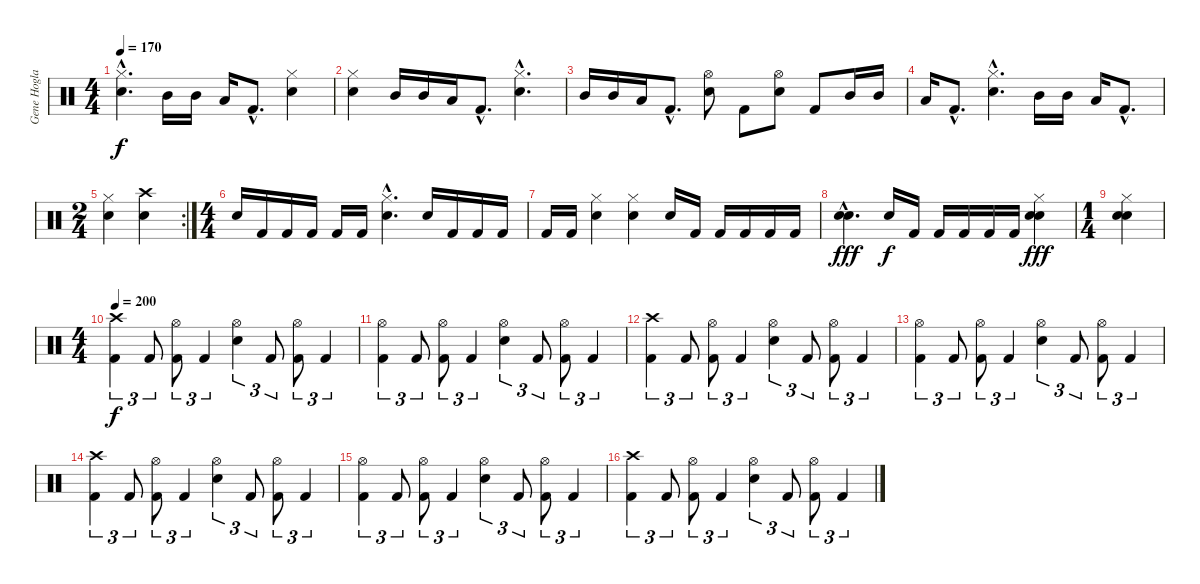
\track ("Gene Hoglan" "Gene Hogla") {instrument percussion}
\staff {score}
\articulation defaults
\ts (4 4)
\tempo 170
\clef neutral
\ks c
("Hi-Hat (closed)"{hac} "Snare (hit) 2"{hac}).4{d dy f} "Mid Tom (hit)".16 "Mid Tom (hit)".16 "Low Tom (hit)".16 "Kick (hit) 2"{hac}.8{d} ("Hi-Hat (closed)" "Snare (hit) 2").4 |
("Hi-Hat (closed)" "Snare (hit) 2").4 "Mid Tom (hit)".16 "Mid Tom (hit)".16 "Low Tom (hit)".16 "Kick (hit) 2"{hac}.8{d} ("Hi-Hat (closed)"{hac} "Snare (hit) 2"{hac}).4{d} |
"Mid Tom (hit)".16 "Mid Tom (hit)".16 "Low Tom (hit)".16 "Kick (hit) 2"{hac}.8{d} ("Hi-Hat (open)" "Snare (hit) 2").8 "Kick (hit) 2".8 ("Hi-Hat (open)" "Snare (hit) 2").8 "Kick (hit) 2".8 "Mid Tom (hit)".16 "Mid Tom (hit)".16 |
"Low Tom (hit)".16 "Kick (hit) 2"{hac}.8{d} ("Hi-Hat (closed)"{hac} "Snare (hit) 2"{hac}).4{d} "Mid Tom (hit)".16 "Mid Tom (hit)".16 "Low Tom (hit)".16 "Kick (hit) 2"{hac}.8{d} |
\rc 2
\ts (2 4)
("Hi-Hat (closed)" "Snare (hit) 2").4 ("Crash high (hit)" "Snare (hit) 2").4 |
\ts (4 4)
"Snare (hit) 2".16 "Kick (hit) 2".16 "Kick (hit) 2".16 "Kick (hit) 2".16 "Kick (hit) 2".16 "Kick (hit) 2".16 ("Hi-Hat (closed)"{hac} "Snare (hit) 2"{hac}).4{d} "Snare (hit) 2".16 "Kick (hit) 2".16 "Kick (hit) 2".16 "Kick (hit) 2".16 |
"Kick (hit) 2".16 "Kick (hit) 2".16 ("Hi-Hat (closed)" "Snare (hit) 2").4 ("Hi-Hat (closed)" "Snare (hit) 2").4 "Snare (hit) 2".16 "Kick (hit) 2".16 "Kick (hit) 2".16 "Kick (hit) 2".16 "Kick (hit) 2".16 "Kick (hit) 2".16 |
("Snare (hit) 2"{hac} "Snare (hit) 2"{hac}).4{d dy fff} "Snare (hit) 2".16{dy f} "Kick (hit) 2".16 "Kick (hit) 2".16 "Kick (hit) 2".16 "Kick (hit) 2".16 "Kick (hit) 2".16 ("Hi-Hat (closed)" "Snare (hit) 2" "Snare (hit) 2").4{dy fff} |
\ts (1 4)
("Hi-Hat (closed)" "Snare (hit) 2" "Snare (hit) 2").4 |
\ts (4 4)
\tempo 200
("Crash high (hit)" "Kick (hit) 2").4{tu (3 2) dy f} "Kick (hit) 2".8{tu (3 2)} ("Hi-Hat (open)" "Kick (hit) 2").8{tu (3 2)} "Kick (hit) 2".4{tu (3 2)} ("Hi-Hat (open)" "Snare (hit) 2").4{tu (3 2)} "Kick (hit) 2".8{tu (3 2)} ("Hi-Hat (open)" "Kick (hit) 2").8{tu (3 2)} "Kick (hit) 2".4{tu (3 2)} |
("Hi-Hat (open)" "Kick (hit) 2").4{tu (3 2)} "Kick (hit) 2".8{tu (3 2)} ("Hi-Hat (open)" "Kick (hit) 2").8{tu (3 2)} "Kick (hit) 2".4{tu (3 2)} ("Hi-Hat (open)" "Snare (hit) 2").4{tu (3 2)} "Kick (hit) 2".8{tu (3 2)} ("Hi-Hat (open)" "Kick (hit) 2").8{tu (3 2)} "Kick (hit) 2".4{tu (3 2)} |
("Crash high (hit)" "Kick (hit) 2").4{tu (3 2)} "Kick (hit) 2".8{tu (3 2)} ("Hi-Hat (open)" "Kick (hit) 2").8{tu (3 2)} "Kick (hit) 2".4{tu (3 2)} ("Hi-Hat (open)" "Snare (hit) 2").4{tu (3 2)} "Kick (hit) 2".8{tu (3 2)} ("Hi-Hat (open)" "Kick (hit) 2").8{tu (3 2)} "Kick (hit) 2".4{tu (3 2)} |
("Hi-Hat (open)" "Kick (hit) 2").4{tu (3 2)} "Kick (hit) 2".8{tu (3 2)} ("Hi-Hat (open)" "Kick (hit) 2").8{tu (3 2)} "Kick (hit) 2".4{tu (3 2)} ("Hi-Hat (open)" "Snare (hit) 2").4{tu (3 2)} "Kick (hit) 2".8{tu (3 2)} ("Hi-Hat (open)" "Kick (hit) 2").8{tu (3 2)} "Kick (hit) 2".4{tu (3 2)} |
("Crash high (hit)" "Kick (hit) 2").4{tu (3 2)} "Kick (hit) 2".8{tu (3 2)} ("Hi-Hat (open)" "Kick (hit) 2").8{tu (3 2)} "Kick (hit) 2".4{tu (3 2)} ("Hi-Hat (open)" "Snare (hit) 2").4{tu (3 2)} "Kick (hit) 2".8{tu (3 2)} ("Hi-Hat (open)" "Kick (hit) 2").8{tu (3 2)} "Kick (hit) 2".4{tu (3 2)} |
("Hi-Hat (open)" "Kick (hit) 2").4{tu (3 2)} "Kick (hit) 2".8{tu (3 2)} ("Hi-Hat (open)" "Kick (hit) 2").8{tu (3 2)} "Kick (hit) 2".4{tu (3 2)} ("Hi-Hat (open)" "Snare (hit) 2").4{tu (3 2)} "Kick (hit) 2".8{tu (3 2)} ("Hi-Hat (open)" "Kick (hit) 2").8{tu (3 2)} "Kick (hit) 2".4{tu (3 2)} |
("Crash high (hit)" "Kick (hit) 2").4{tu (3 2)} "Kick (hit) 2".8{tu (3 2)} ("Hi-Hat (open)" "Kick (hit) 2").8{tu (3 2)} "Kick (hit) 2".4{tu (3 2)} ("Hi-Hat (open)" "Snare (hit) 2").4{tu (3 2)} "Kick (hit) 2".8{tu (3 2)} ("Hi-Hat (open)" "Kick (hit) 2").8{tu (3 2)} "Kick (hit) 2".4{tu (3 2)}
